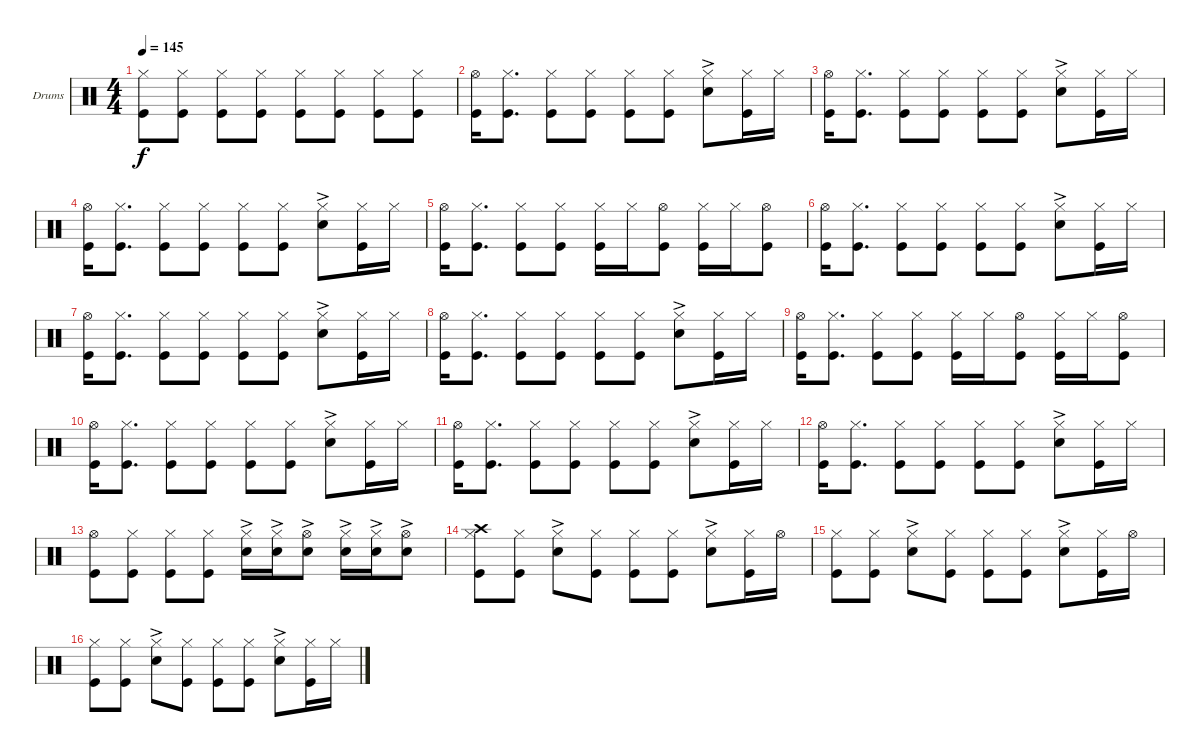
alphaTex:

\defaultSystemsLayout 4
\bracketExtendMode groupsimilarinstruments
\firstSystemTrackNameOrientation horizontal
\otherSystemsTrackNameOrientation horizontal
\track ("Drumkit" "Drums") {instrument percussion}
\staff {score}
\articulation defaults
\ts (4 4)
\tempo 145
\clef neutral
\ks c
("Kick (hit)" "Hi-Hat (closed)").8{dy f} ("Kick (hit)" "Hi-Hat (closed)").8 ("Kick (hit)" "Hi-Hat (closed)").8 ("Kick (hit)" "Hi-Hat (closed)").8 ("Kick (hit)" "Hi-Hat (closed)").8 ("Kick (hit)" "Hi-Hat (closed)").8 ("Kick (hit)" "Hi-Hat (closed)").8 ("Kick (hit)" "Hi-Hat (closed)").8 |
("Kick (hit)" "Hi-Hat (open)").16 ("Kick (hit)" "Hi-Hat (closed)").8{d} ("Kick (hit)" "Hi-Hat (closed)").8 ("Kick (hit)" "Hi-Hat (closed)").8 ("Kick (hit)" "Hi-Hat (closed)").8 ("Kick (hit)" "Hi-Hat (closed)").8 ("Snare (hit) 2"{ac} "Hi-Hat (closed)").8 ("Kick (hit)" "Hi-Hat (closed)").16 "Hi-Hat (closed)".16 |
("Kick (hit)" "Hi-Hat (open)").16 ("Kick (hit)" "Hi-Hat (closed)").8{d} ("Kick (hit)" "Hi-Hat (closed)").8 ("Kick (hit)" "Hi-Hat (closed)").8 ("Kick (hit)" "Hi-Hat (closed)").8 ("Kick (hit)" "Hi-Hat (closed)").8 ("Snare (hit) 2"{ac} "Hi-Hat (closed)").8 ("Kick (hit)" "Hi-Hat (closed)").16 "Hi-Hat (closed)".16 |
("Kick (hit)" "Hi-Hat (open)").16 ("Kick (hit)" "Hi-Hat (closed)").8{d} ("Kick (hit)" "Hi-Hat (closed)").8 ("Kick (hit)" "Hi-Hat (closed)").8 ("Kick (hit)" "Hi-Hat (closed)").8 ("Kick (hit)" "Hi-Hat (closed)").8 ("Snare (hit) 2"{ac} "Hi-Hat (closed)").8 ("Kick (hit)" "Hi-Hat (closed)").16 "Hi-Hat (closed)".16 |
("Kick (hit)" "Hi-Hat (open)").16 ("Kick (hit)" "Hi-Hat (closed)").8{d} ("Kick (hit)" "Hi-Hat (closed)").8 ("Kick (hit)" "Hi-Hat (closed)").8 ("Kick (hit)" "Hi-Hat (closed)").16 "Hi-Hat (closed)".16 ("Kick (hit)" "Hi-Hat (open)").8 ("Kick (hit)" "Hi-Hat (closed)").16 "Hi-Hat (closed)".16 ("Kick (hit)" "Hi-Hat (open)").8 |
("Kick (hit)" "Hi-Hat (open)").16 ("Kick (hit)" "Hi-Hat (closed)").8{d} ("Kick (hit)" "Hi-Hat (closed)").8 ("Kick (hit)" "Hi-Hat (closed)").8 ("Kick (hit)" "Hi-Hat (closed)").8 ("Kick (hit)" "Hi-Hat (closed)").8 ("Snare (hit) 2"{ac} "Hi-Hat (closed)").8 ("Kick (hit)" "Hi-Hat (closed)").16 "Hi-Hat (closed)".16 |
("Kick (hit)" "Hi-Hat (open)").16 ("Kick (hit)" "Hi-Hat (closed)").8{d} ("Kick (hit)" "Hi-Hat (closed)").8 ("Kick (hit)" "Hi-Hat (closed)").8 ("Kick (hit)" "Hi-Hat (closed)").8 ("Kick (hit)" "Hi-Hat (closed)").8 ("Snare (hit) 2"{ac} "Hi-Hat (closed)").8 ("Kick (hit)" "Hi-Hat (closed)").16 "Hi-Hat (closed)".16 |
("Kick (hit)" "Hi-Hat (open)").16 ("Kick (hit)" "Hi-Hat (closed)").8{d} ("Kick (hit)" "Hi-Hat (closed)").8 ("Kick (hit)" "Hi-Hat (closed)").8 ("Kick (hit)" "Hi-Hat (closed)").8 ("Kick (hit)" "Hi-Hat (closed)").8 ("Snare (hit) 2"{ac} "Hi-Hat (closed)").8 ("Kick (hit)" "Hi-Hat (closed)").16 "Hi-Hat (closed)".16 |
("Kick (hit)" "Hi-Hat (open)").16 ("Kick (hit)" "Hi-Hat (closed)").8{d} ("Kick (hit)" "Hi-Hat (closed)").8 ("Kick (hit)" "Hi-Hat (closed)").8 ("Kick (hit)" "Hi-Hat (closed)").16 "Hi-Hat (closed)".16 ("Kick (hit)" "Hi-Hat (open)").8 ("Kick (hit)" "Hi-Hat (closed)").16 "Hi-Hat (closed)".16 ("Kick (hit)" "Hi-Hat (open)").8 |
("Kick (hit)" "Hi-Hat (open)").16 ("Kick (hit)" "Hi-Hat (closed)").8{d} ("Kick (hit)" "Hi-Hat (closed)").8 ("Kick (hit)" "Hi-Hat (closed)").8 ("Kick (hit)" "Hi-Hat (closed)").8 ("Kick (hit)" "Hi-Hat (closed)").8 ("Snare (hit) 2"{ac} "Hi-Hat (closed)").8 ("Kick (hit)" "Hi-Hat (closed)").16 "Hi-Hat (closed)".16 |
("Kick (hit)" "Hi-Hat (open)").16 ("Kick (hit)" "Hi-Hat (closed)").8{d} ("Kick (hit)" "Hi-Hat (closed)").8 ("Kick (hit)" "Hi-Hat (closed)").8 ("Kick (hit)" "Hi-Hat (closed)").8 ("Kick (hit)" "Hi-Hat (closed)").8 ("Snare (hit) 2"{ac} "Hi-Hat (closed)").8 ("Kick (hit)" "Hi-Hat (closed)").16 "Hi-Hat (closed)".16 |
("Kick (hit)" "Hi-Hat (open)").16 ("Kick (hit)" "Hi-Hat (closed)").8{d} ("Kick (hit)" "Hi-Hat (closed)").8 ("Kick (hit)" "Hi-Hat (closed)").8 ("Kick (hit)" "Hi-Hat (closed)").8 ("Kick (hit)" "Hi-Hat (closed)").8 ("Snare (hit) 2"{ac} "Hi-Hat (closed)").8 ("Kick (hit)" "Hi-Hat (closed)").16 "Hi-Hat (closed)".16 |
("Kick (hit)" "Hi-Hat (open)").8 ("Kick (hit)" "Hi-Hat (closed)").8 ("Kick (hit)" "Hi-Hat (closed)").8 ("Kick (hit)" "Hi-Hat (closed)").8 ("Hi-Hat (closed)" "Snare (hit) 2"{ac}).16 ("Hi-Hat (closed)" "Snare (hit) 2"{ac}).16 ("Hi-Hat (open)" "Snare (hit) 2"{ac}).8 ("Hi-Hat (closed)" "Snare (hit) 2"{ac}).16 ("Hi-Hat (closed)" "Snare (hit) 2"{ac}).16 ("Hi-Hat (open)" "Snare (hit) 2"{ac}).8 |
("Kick (hit)" "Hi-Hat (closed)" "Crash high (hit)").8 ("Kick (hit)" "Hi-Hat (closed)").8 ("Snare (hit) 2"{ac} "Hi-Hat (closed)").8 ("Kick (hit)" "Hi-Hat (closed)").8 ("Kick (hit)" "Hi-Hat (closed)").8 ("Kick (hit)" "Hi-Hat (closed)").8 ("Snare (hit) 2"{ac} "Hi-Hat (closed)").8 ("Kick (hit)" "Hi-Hat (closed)").16 "Hi-Hat (open)".16 |
("Kick (hit)" "Hi-Hat (closed)").8 ("Kick (hit)" "Hi-Hat (closed)").8 ("Snare (hit) 2"{ac} "Hi-Hat (closed)").8 ("Kick (hit)" "Hi-Hat (closed)").8 ("Kick (hit)" "Hi-Hat (closed)").8 ("Kick (hit)" "Hi-Hat (closed)").8 ("Snare (hit) 2"{ac} "Hi-Hat (closed)").8 ("Kick (hit)" "Hi-Hat (closed)").16 "Hi-Hat (open)".16 |
("Kick (hit)" "Hi-Hat (closed)").8 ("Kick (hit)" "Hi-Hat (closed)").8 ("Snare (hit) 2"{ac} "Hi-Hat (closed)").8 ("Kick (hit)" "Hi-Hat (closed)").8 ("Kick (hit)" "Hi-Hat (closed)").8 ("Kick (hit)" "Hi-Hat (closed)").8 ("Snare (hit) 2"{ac} "Hi-Hat (closed)").8 ("Kick (hit)" "Hi-Hat (closed)").16 "Hi-Hat (closed)".16
